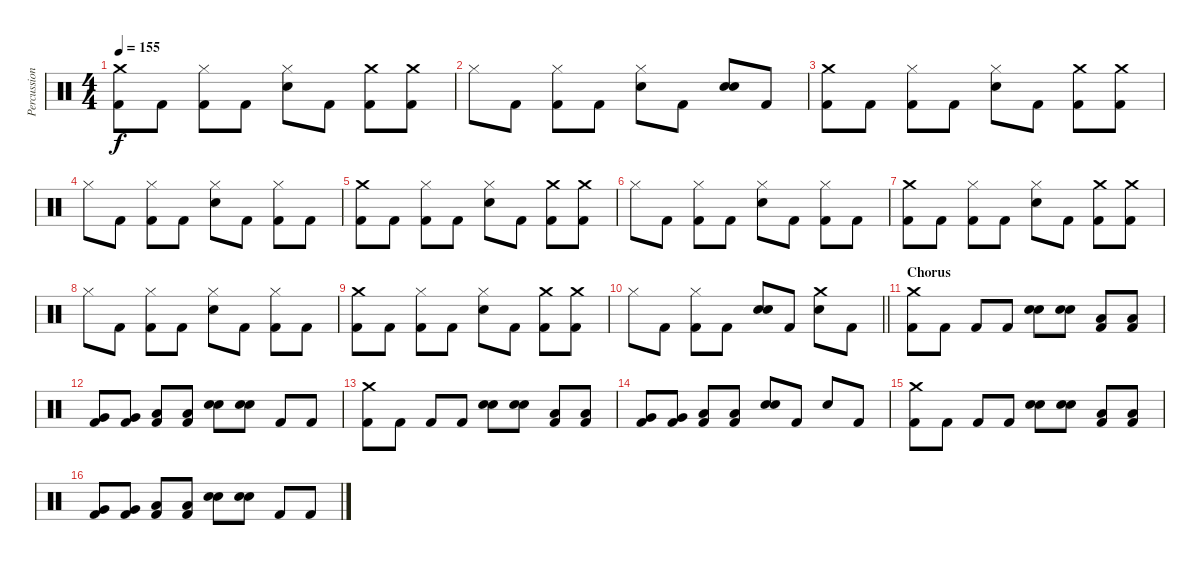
\track ("Percussion" "Percussion") {instrument percussion}
\staff {score}
\articulation defaults
\ts (4 4)
\tempo 155
\clef neutral
\ks c
("Crash medium (hit)" "Kick (hit) 2").8{dy f} "Kick (hit) 2".8 ("Hi-Hat (closed)" "Kick (hit) 2").8 "Kick (hit) 2".8 ("Hi-Hat (closed)" "Electric Snare (hit)").8 "Kick (hit) 2".8 ("Crash medium (hit)" "Kick (hit) 2").8 ("Crash medium (hit)" "Kick (hit) 2").8 |
"Hi-Hat (closed)".8 "Kick (hit) 2".8 ("Hi-Hat (closed)" "Kick (hit) 2").8 "Kick (hit) 2".8 ("Hi-Hat (closed)" "Electric Snare (hit)").8 "Kick (hit) 2".8 ("Snare (hit) 2" "Electric Snare (hit)").8 "Kick (hit) 2".8 |
("Crash medium (hit)" "Kick (hit) 2").8 "Kick (hit) 2".8 ("Hi-Hat (closed)" "Kick (hit) 2").8 "Kick (hit) 2".8 ("Hi-Hat (closed)" "Electric Snare (hit)").8 "Kick (hit) 2".8 ("Crash medium (hit)" "Kick (hit) 2").8 ("Crash medium (hit)" "Kick (hit) 2").8 |
"Hi-Hat (closed)".8 "Kick (hit) 2".8 ("Hi-Hat (closed)" "Kick (hit) 2").8 "Kick (hit) 2".8 ("Hi-Hat (closed)" "Electric Snare (hit)").8 "Kick (hit) 2".8 ("Hi-Hat (closed)" "Kick (hit) 2").8 "Kick (hit) 2".8 |
("Crash medium (hit)" "Kick (hit) 2").8 "Kick (hit) 2".8 ("Hi-Hat (closed)" "Kick (hit) 2").8 "Kick (hit) 2".8 ("Hi-Hat (closed)" "Electric Snare (hit)").8 "Kick (hit) 2".8 ("Crash medium (hit)" "Kick (hit) 2").8 ("Crash medium (hit)" "Kick (hit) 2").8 |
"Hi-Hat (closed)".8 "Kick (hit) 2".8 ("Hi-Hat (closed)" "Kick (hit) 2").8 "Kick (hit) 2".8 ("Hi-Hat (closed)" "Electric Snare (hit)").8 "Kick (hit) 2".8 ("Hi-Hat (closed)" "Kick (hit) 2").8 "Kick (hit) 2".8 |
("Crash medium (hit)" "Kick (hit) 2").8 "Kick (hit) 2".8 ("Hi-Hat (closed)" "Kick (hit) 2").8 "Kick (hit) 2".8 ("Hi-Hat (closed)" "Electric Snare (hit)").8 "Kick (hit) 2".8 ("Crash medium (hit)" "Kick (hit) 2").8 ("Crash medium (hit)" "Kick (hit) 2").8 |
"Hi-Hat (closed)".8 "Kick (hit) 2".8 ("Hi-Hat (closed)" "Kick (hit) 2").8 "Kick (hit) 2".8 ("Hi-Hat (closed)" "Electric Snare (hit)").8 "Kick (hit) 2".8 ("Hi-Hat (closed)" "Kick (hit) 2").8 "Kick (hit) 2".8 |
("Crash medium (hit)" "Kick (hit) 2").8 "Kick (hit) 2".8 ("Hi-Hat (closed)" "Kick (hit) 2").8 "Kick (hit) 2".8 ("Hi-Hat (closed)" "Electric Snare (hit)").8 "Kick (hit) 2".8 ("Crash medium (hit)" "Kick (hit) 2").8 ("Crash medium (hit)" "Kick (hit) 2").8 |
\barLineRight lightlight "Hi-Hat (closed)".8 "Kick (hit) 2".8
("Hi-Hat (closed)" "Kick (hit) 2").8 "Kick (hit) 2".8 ("Snare (hit) 2" "Electric Snare (hit)").8 "Kick (hit) 2".8 ("Crash medium (hit)" "Electric Snare (hit)").8 "Kick (hit) 2".8 |
\section ("" "Chorus")
("Crash medium (hit)" "Kick (hit) 2").8 "Kick (hit) 2".8 "Kick (hit) 2".8 "Kick (hit) 2".8 ("Snare (hit) 2" "Electric Snare (hit)").8 ("Snare (hit) 2" "Electric Snare (hit)").8 ("Low Tom (hit)" "Kick (hit) 2").8 ("Low Tom (hit)" "Kick (hit) 2").8 |
("Very Low Tom (hit)" "Kick (hit) 2").8 ("Very Low Tom (hit)" "Kick (hit) 2").8 ("Low Floor Tom (hit)" "Kick (hit) 2").8 ("Low Floor Tom (hit)" "Kick (hit) 2").8 ("Snare (hit) 2" "Electric Snare (hit)").8 ("Snare (hit) 2" "Electric Snare (hit)").8 "Kick (hit) 2".8 "Kick (hit) 2".8 |
("Crash medium (hit)" "Kick (hit) 2").8 "Kick (hit) 2".8 "Kick (hit) 2".8 "Kick (hit) 2".8 ("Snare (hit) 2" "Electric Snare (hit)").8 ("Snare (hit) 2" "Electric Snare (hit)").8 ("Low Tom (hit)" "Kick (hit) 2").8 ("Low Tom (hit)" "Kick (hit) 2").8 |
("Very Low Tom (hit)" "Kick (hit) 2").8 ("Very Low Tom (hit)" "Kick (hit) 2").8 ("Low Floor Tom (hit)" "Kick (hit) 2").8 ("Low Floor Tom (hit)" "Kick (hit) 2").8 ("Snare (hit) 2" "Electric Snare (hit)").8 "Kick (hit) 2".8 "Electric Snare (hit)".8 "Kick (hit) 2".8 |
("Crash medium (hit)" "Kick (hit) 2").8 "Kick (hit) 2".8 "Kick (hit) 2".8 "Kick (hit) 2".8 ("Snare (hit) 2" "Electric Snare (hit)").8 ("Snare (hit) 2" "Electric Snare (hit)").8 ("Low Tom (hit)" "Kick (hit) 2").8 ("Low Tom (hit)" "Kick (hit) 2").8 |
("Very Low Tom (hit)" "Kick (hit) 2").8 ("Very Low Tom (hit)" "Kick (hit) 2").8 ("Low Floor Tom (hit)" "Kick (hit) 2").8 ("Low Floor Tom (hit)" "Kick (hit) 2").8 ("Snare (hit) 2" "Electric Snare (hit)").8 ("Snare (hit) 2" "Electric Snare (hit)").8 "Kick (hit) 2".8 "Kick (hit) 2".8
